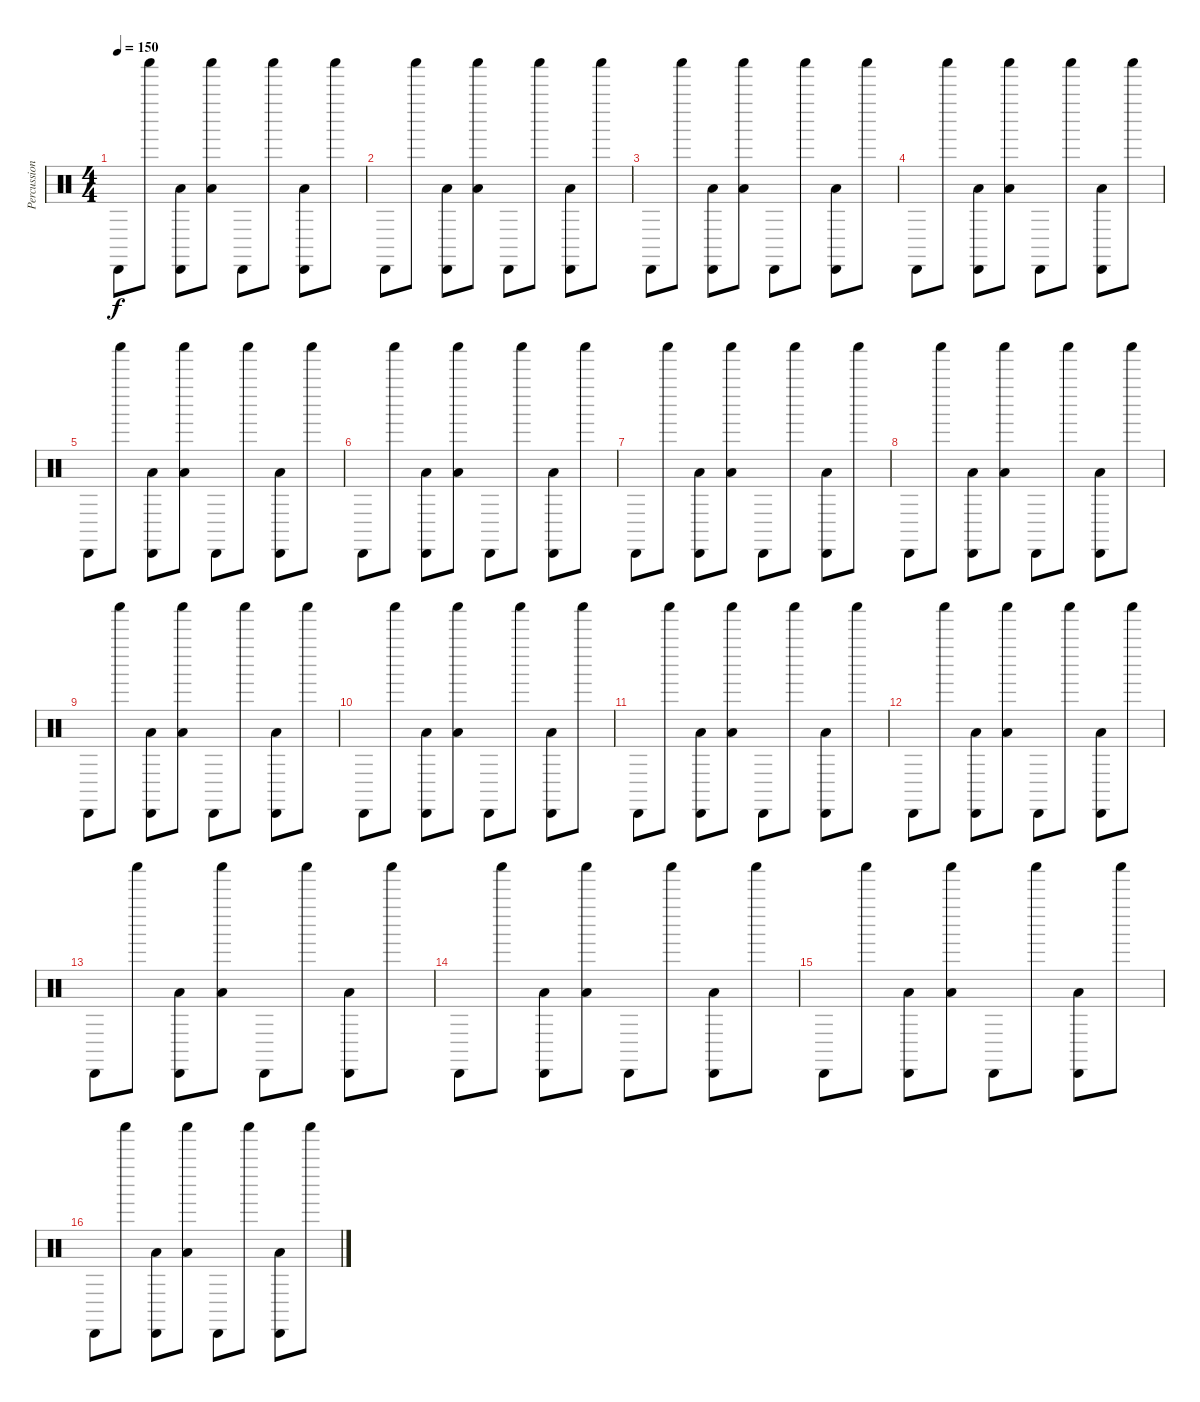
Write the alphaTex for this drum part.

\track ("Percussion" "Percussion") {instrument percussion}
\staff
\articulation defaults
\ts (4 4)
\tempo 150
\clef neutral
\ks c "Cabasa (hit)".8{dy f} "Shaker (hit)".8
("Cabasa (hit)" "Low Floor Tom (hit)").8 ("Shaker (hit)" "Low Floor Tom (hit)").8 "Cabasa (hit)".8 "Shaker (hit)".8 ("Cabasa (hit)" "Low Floor Tom (hit)").8 "Shaker (hit)".8 |
"Cabasa (hit)".8 "Shaker (hit)".8 ("Cabasa (hit)" "Low Floor Tom (hit)").8 ("Shaker (hit)" "Low Floor Tom (hit)").8 "Cabasa (hit)".8 "Shaker (hit)".8 ("Cabasa (hit)" "Low Floor Tom (hit)").8 "Shaker (hit)".8 |
"Cabasa (hit)".8 "Shaker (hit)".8 ("Cabasa (hit)" "Low Floor Tom (hit)").8 ("Shaker (hit)" "Low Floor Tom (hit)").8 "Cabasa (hit)".8 "Shaker (hit)".8 ("Cabasa (hit)" "Low Floor Tom (hit)").8 "Shaker (hit)".8 |
"Cabasa (hit)".8 "Shaker (hit)".8 ("Cabasa (hit)" "Low Floor Tom (hit)").8 ("Shaker (hit)" "Low Floor Tom (hit)").8 "Cabasa (hit)".8 "Shaker (hit)".8 ("Cabasa (hit)" "Low Floor Tom (hit)").8 "Shaker (hit)".8 |
"Cabasa (hit)".8 "Shaker (hit)".8 ("Cabasa (hit)" "Low Floor Tom (hit)").8 ("Shaker (hit)" "Low Floor Tom (hit)").8 "Cabasa (hit)".8 "Shaker (hit)".8 ("Cabasa (hit)" "Low Floor Tom (hit)").8 "Shaker (hit)".8 |
"Cabasa (hit)".8 "Shaker (hit)".8 ("Cabasa (hit)" "Low Floor Tom (hit)").8 ("Shaker (hit)" "Low Floor Tom (hit)").8 "Cabasa (hit)".8 "Shaker (hit)".8 ("Cabasa (hit)" "Low Floor Tom (hit)").8 "Shaker (hit)".8 |
"Cabasa (hit)".8 "Shaker (hit)".8 ("Cabasa (hit)" "Low Floor Tom (hit)").8 ("Shaker (hit)" "Low Floor Tom (hit)").8 "Cabasa (hit)".8 "Shaker (hit)".8 ("Cabasa (hit)" "Low Floor Tom (hit)").8 "Shaker (hit)".8 |
"Cabasa (hit)".8 "Shaker (hit)".8 ("Cabasa (hit)" "Low Floor Tom (hit)").8 ("Shaker (hit)" "Low Floor Tom (hit)").8 "Cabasa (hit)".8 "Shaker (hit)".8 ("Cabasa (hit)" "Low Floor Tom (hit)").8 "Shaker (hit)".8 |
"Cabasa (hit)".8 "Shaker (hit)".8 ("Cabasa (hit)" "Low Floor Tom (hit)").8 ("Shaker (hit)" "Low Floor Tom (hit)").8 "Cabasa (hit)".8 "Shaker (hit)".8 ("Cabasa (hit)" "Low Floor Tom (hit)").8 "Shaker (hit)".8 |
"Cabasa (hit)".8 "Shaker (hit)".8 ("Cabasa (hit)" "Low Floor Tom (hit)").8 ("Shaker (hit)" "Low Floor Tom (hit)").8 "Cabasa (hit)".8 "Shaker (hit)".8 ("Cabasa (hit)" "Low Floor Tom (hit)").8 "Shaker (hit)".8 |
"Cabasa (hit)".8 "Shaker (hit)".8 ("Cabasa (hit)" "Low Floor Tom (hit)").8 ("Shaker (hit)" "Low Floor Tom (hit)").8 "Cabasa (hit)".8 "Shaker (hit)".8 ("Cabasa (hit)" "Low Floor Tom (hit)").8 "Shaker (hit)".8 |
"Cabasa (hit)".8 "Shaker (hit)".8 ("Cabasa (hit)" "Low Floor Tom (hit)").8 ("Shaker (hit)" "Low Floor Tom (hit)").8 "Cabasa (hit)".8 "Shaker (hit)".8 ("Cabasa (hit)" "Low Floor Tom (hit)").8 "Shaker (hit)".8 |
"Cabasa (hit)".8 "Shaker (hit)".8 ("Cabasa (hit)" "Low Floor Tom (hit)").8 ("Shaker (hit)" "Low Floor Tom (hit)").8 "Cabasa (hit)".8 "Shaker (hit)".8 ("Cabasa (hit)" "Low Floor Tom (hit)").8 "Shaker (hit)".8 |
"Cabasa (hit)".8 "Shaker (hit)".8 ("Cabasa (hit)" "Low Floor Tom (hit)").8 ("Shaker (hit)" "Low Floor Tom (hit)").8 "Cabasa (hit)".8 "Shaker (hit)".8 ("Cabasa (hit)" "Low Floor Tom (hit)").8 "Shaker (hit)".8 |
"Cabasa (hit)".8 "Shaker (hit)".8 ("Cabasa (hit)" "Low Floor Tom (hit)").8 ("Shaker (hit)" "Low Floor Tom (hit)").8 "Cabasa (hit)".8 "Shaker (hit)".8 ("Cabasa (hit)" "Low Floor Tom (hit)").8 "Shaker (hit)".8 |
"Cabasa (hit)".8 "Shaker (hit)".8 ("Cabasa (hit)" "Low Floor Tom (hit)").8 ("Shaker (hit)" "Low Floor Tom (hit)").8 "Cabasa (hit)".8 "Shaker (hit)".8 ("Cabasa (hit)" "Low Floor Tom (hit)").8 "Shaker (hit)".8
